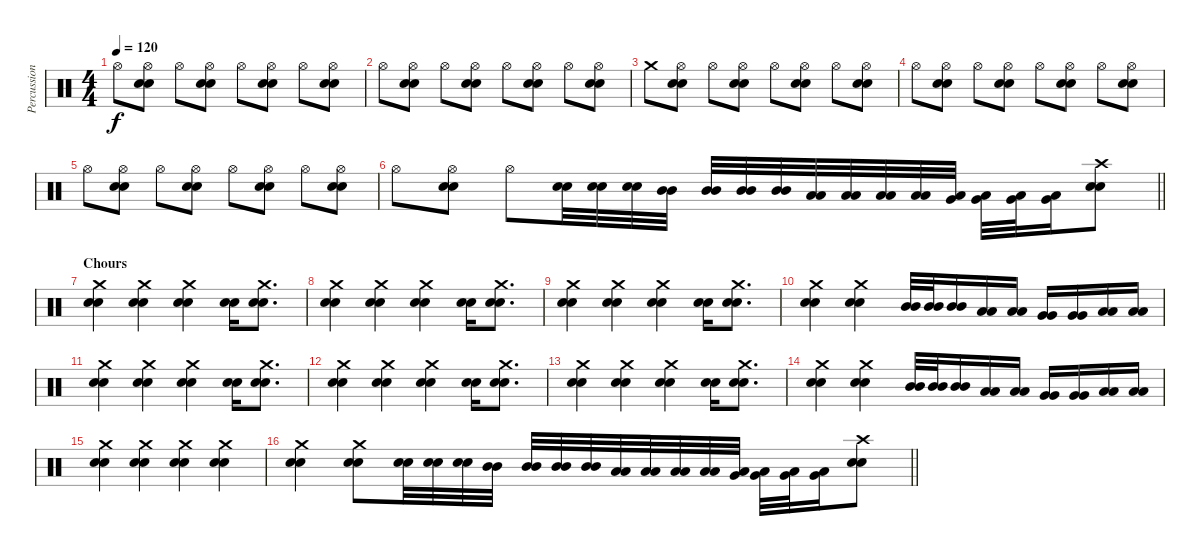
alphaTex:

\track ("Percussioni" "Percussion") {instrument percussion}
\staff
\articulation defaults
\ts (4 4)
\tempo 120
\clef neutral
\ks c "Hi-Hat (open)".8{dy f}
("Hi-Hat (open)" "Electric Snare (hit)" "Snare (hit) 2").8 "Hi-Hat (open)".8 ("Hi-Hat (open)" "Electric Snare (hit)" "Snare (hit) 2").8 "Hi-Hat (open)".8 ("Hi-Hat (open)" "Electric Snare (hit)" "Snare (hit) 2").8 "Hi-Hat (open)".8 ("Hi-Hat (open)" "Electric Snare (hit)" "Snare (hit) 2").8 |
"Hi-Hat (open)".8 ("Hi-Hat (open)" "Electric Snare (hit)" "Snare (hit) 2").8 "Hi-Hat (open)".8 ("Hi-Hat (open)" "Electric Snare (hit)" "Snare (hit) 2").8 "Hi-Hat (open)".8 ("Hi-Hat (open)" "Electric Snare (hit)" "Snare (hit) 2").8 "Hi-Hat (open)".8 ("Hi-Hat (open)" "Electric Snare (hit)" "Snare (hit) 2").8 |
"Crash medium (hit)".8 ("Hi-Hat (open)" "Electric Snare (hit)" "Snare (hit) 2").8 "Hi-Hat (open)".8 ("Hi-Hat (open)" "Electric Snare (hit)" "Snare (hit) 2").8 "Hi-Hat (open)".8 ("Hi-Hat (open)" "Electric Snare (hit)" "Snare (hit) 2").8 "Hi-Hat (open)".8 ("Hi-Hat (open)" "Electric Snare (hit)" "Snare (hit) 2").8 |
"Hi-Hat (open)".8 ("Hi-Hat (open)" "Electric Snare (hit)" "Snare (hit) 2").8 "Hi-Hat (open)".8 ("Hi-Hat (open)" "Electric Snare (hit)" "Snare (hit) 2").8 "Hi-Hat (open)".8 ("Hi-Hat (open)" "Electric Snare (hit)" "Snare (hit) 2").8 "Hi-Hat (open)".8 ("Hi-Hat (open)" "Electric Snare (hit)" "Snare (hit) 2").8 |
"Hi-Hat (open)".8 ("Hi-Hat (open)" "Electric Snare (hit)" "Snare (hit) 2").8 "Hi-Hat (open)".8 ("Hi-Hat (open)" "Electric Snare (hit)" "Snare (hit) 2").8 "Hi-Hat (open)".8 ("Hi-Hat (open)" "Electric Snare (hit)" "Snare (hit) 2").8 "Hi-Hat (open)".8 ("Hi-Hat (open)" "Electric Snare (hit)" "Snare (hit) 2").8 |
\barLineRight lightlight "Hi-Hat (open)".8
("Hi-Hat (open)" "Electric Snare (hit)" "Snare (hit) 2").8 "Hi-Hat (open)".8 ("Electric Snare (hit)" "Snare (hit) 2").32 ("Electric Snare (hit)" "Snare (hit) 2").32 ("Electric Snare (hit)" "Snare (hit) 2").32 ("Mid Tom (hit)" "Mid Tom (hit)").32 ("Mid Tom (hit)" "Mid Tom (hit)").32 ("Mid Tom (hit)" "Mid Tom (hit)").32 ("Mid Tom (hit)" "Mid Tom (hit)").32 ("Low Tom (hit)" "Low Tom (hit)").32 ("Low Tom (hit)" "Low Tom (hit)").32 ("Low Tom (hit)" "Low Tom (hit)").32 ("Low Tom (hit)" "Low Tom (hit)").32 ("Very Low Tom (hit)" "Low Floor Tom (hit)").32 ("Very Low Tom (hit)" "Low Floor Tom (hit)").32 ("Very Low Tom (hit)" "Low Floor Tom (hit)").32 ("Very Low Tom (hit)" "Low Floor Tom (hit)").16 ("Crash high (hit)" "Electric Snare (hit)" "Snare (hit) 2").8 |
\section ("" "Chours")
("Crash medium (hit)" "Electric Snare (hit)" "Snare (hit) 2").4 ("Crash medium (hit)" "Electric Snare (hit)" "Snare (hit) 2").4 ("Crash medium (hit)" "Electric Snare (hit)" "Snare (hit) 2").4 ("Electric Snare (hit)" "Snare (hit) 2").16 ("Crash medium (hit)" "Electric Snare (hit)" "Snare (hit) 2").8{d} |
("Crash medium (hit)" "Electric Snare (hit)" "Snare (hit) 2").4 ("Crash medium (hit)" "Electric Snare (hit)" "Snare (hit) 2").4 ("Crash medium (hit)" "Electric Snare (hit)" "Snare (hit) 2").4 ("Electric Snare (hit)" "Snare (hit) 2").16 ("Crash medium (hit)" "Electric Snare (hit)" "Snare (hit) 2").8{d} |
("Crash medium (hit)" "Electric Snare (hit)" "Snare (hit) 2").4 ("Crash medium (hit)" "Electric Snare (hit)" "Snare (hit) 2").4 ("Crash medium (hit)" "Electric Snare (hit)" "Snare (hit) 2").4 ("Electric Snare (hit)" "Snare (hit) 2").16 ("Crash medium (hit)" "Electric Snare (hit)" "Snare (hit) 2").8{d} |
("Crash medium (hit)" "Electric Snare (hit)" "Snare (hit) 2").4 ("Crash medium (hit)" "Electric Snare (hit)" "Snare (hit) 2").4 ("Mid Tom (hit)" "Mid Tom (hit)").32 ("Mid Tom (hit)" "Mid Tom (hit)").32 ("Mid Tom (hit)" "Mid Tom (hit)").16 ("Low Tom (hit)" "Low Tom (hit)").16 ("Low Tom (hit)" "Low Tom (hit)").16 ("Very Low Tom (hit)" "Very Low Tom (hit)").16 ("Very Low Tom (hit)" "Very Low Tom (hit)").16 ("Low Floor Tom (hit)" "Low Floor Tom (hit)").16 ("Low Floor Tom (hit)" "Low Floor Tom (hit)").16 |
("Crash medium (hit)" "Electric Snare (hit)" "Snare (hit) 2").4 ("Crash medium (hit)" "Electric Snare (hit)" "Snare (hit) 2").4 ("Crash medium (hit)" "Electric Snare (hit)" "Snare (hit) 2").4 ("Electric Snare (hit)" "Snare (hit) 2").16 ("Crash medium (hit)" "Electric Snare (hit)" "Snare (hit) 2").8{d} |
("Crash medium (hit)" "Electric Snare (hit)" "Snare (hit) 2").4 ("Crash medium (hit)" "Electric Snare (hit)" "Snare (hit) 2").4 ("Crash medium (hit)" "Electric Snare (hit)" "Snare (hit) 2").4 ("Electric Snare (hit)" "Snare (hit) 2").16 ("Crash medium (hit)" "Electric Snare (hit)" "Snare (hit) 2").8{d} |
("Crash medium (hit)" "Electric Snare (hit)" "Snare (hit) 2").4 ("Crash medium (hit)" "Electric Snare (hit)" "Snare (hit) 2").4 ("Crash medium (hit)" "Electric Snare (hit)" "Snare (hit) 2").4 ("Electric Snare (hit)" "Snare (hit) 2").16 ("Crash medium (hit)" "Electric Snare (hit)" "Snare (hit) 2").8{d} |
("Crash medium (hit)" "Electric Snare (hit)" "Snare (hit) 2").4 ("Crash medium (hit)" "Electric Snare (hit)" "Snare (hit) 2").4 ("Mid Tom (hit)" "Mid Tom (hit)").32 ("Mid Tom (hit)" "Mid Tom (hit)").32 ("Mid Tom (hit)" "Mid Tom (hit)").16 ("Low Tom (hit)" "Low Tom (hit)").16 ("Low Tom (hit)" "Low Tom (hit)").16 ("Very Low Tom (hit)" "Very Low Tom (hit)").16 ("Very Low Tom (hit)" "Very Low Tom (hit)").16 ("Low Floor Tom (hit)" "Low Floor Tom (hit)").16 ("Low Floor Tom (hit)" "Low Floor Tom (hit)").16 |
("Crash medium (hit)" "Electric Snare (hit)" "Snare (hit) 2").4 ("Crash medium (hit)" "Electric Snare (hit)" "Snare (hit) 2").4 ("Crash medium (hit)" "Electric Snare (hit)" "Snare (hit) 2").4 ("Crash medium (hit)" "Electric Snare (hit)" "Snare (hit) 2").4 |
\barLineRight lightlight
("Crash medium (hit)" "Electric Snare (hit)" "Snare (hit) 2").4 ("Crash medium (hit)" "Electric Snare (hit)" "Snare (hit) 2").8 ("Electric Snare (hit)" "Snare (hit) 2").32 ("Electric Snare (hit)" "Snare (hit) 2").32 ("Electric Snare (hit)" "Snare (hit) 2").32 ("Mid Tom (hit)" "Mid Tom (hit)").32 ("Mid Tom (hit)" "Mid Tom (hit)").32 ("Mid Tom (hit)" "Mid Tom (hit)").32 ("Mid Tom (hit)" "Mid Tom (hit)").32 ("Low Tom (hit)" "Low Tom (hit)").32 ("Low Tom (hit)" "Low Tom (hit)").32 ("Low Tom (hit)" "Low Tom (hit)").32 ("Low Tom (hit)" "Low Tom (hit)").32 ("Very Low Tom (hit)" "Low Floor Tom (hit)").32 ("Very Low Tom (hit)" "Low Floor Tom (hit)").32 ("Very Low Tom (hit)" "Low Floor Tom (hit)").32 ("Very Low Tom (hit)" "Low Floor Tom (hit)").16 ("Crash high (hit)" "Electric Snare (hit)" "Snare (hit) 2").8
